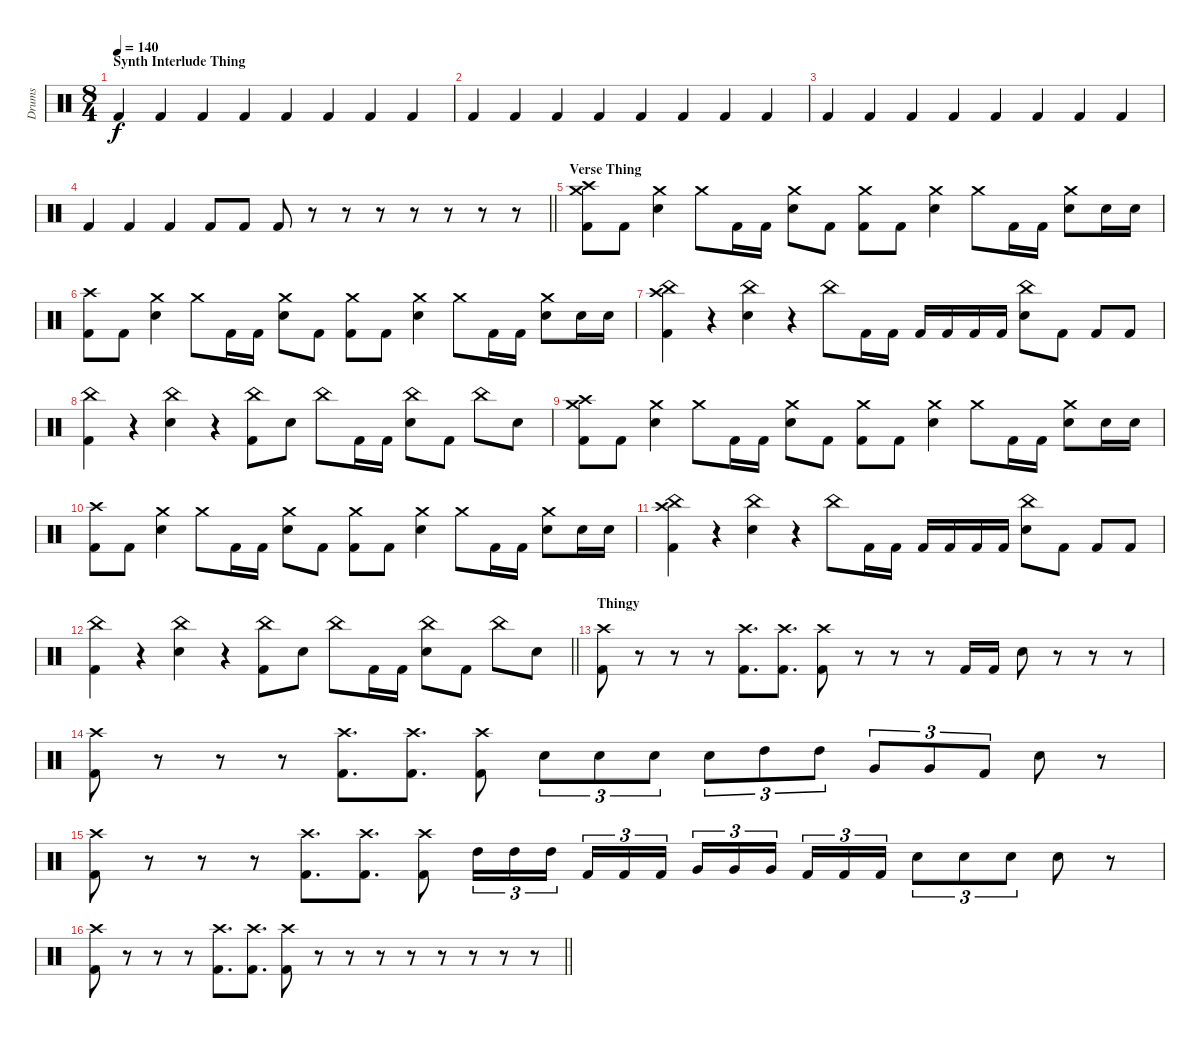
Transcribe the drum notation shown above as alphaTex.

\track ("Drums" "Drums") {instrument percussion}
\staff {score}
\articulation defaults
\ts (8 4)
\section ("" "Synth Interlude Thing")
\tempo 140
\clef neutral
\ks c "Kick (hit) 2".4{dy f} "Kick (hit) 2".4 "Kick (hit) 2".4 "Kick (hit) 2".4 "Kick (hit) 2".4 "Kick (hit) 2".4 "Kick (hit) 2".4 "Kick (hit) 2".4
|
"Kick (hit) 2".4 "Kick (hit) 2".4 "Kick (hit) 2".4 "Kick (hit) 2".4 "Kick (hit) 2".4 "Kick (hit) 2".4 "Kick (hit) 2".4 "Kick (hit) 2".4 |
"Kick (hit) 2".4 "Kick (hit) 2".4 "Kick (hit) 2".4 "Kick (hit) 2".4 "Kick (hit) 2".4 "Kick (hit) 2".4 "Kick (hit) 2".4 "Kick (hit) 2".4 |
\barLineRight lightlight "Kick (hit) 2".4 "Kick (hit) 2".4 "Kick (hit) 2".4 "Kick (hit) 2".8 "Kick (hit) 2".8 "Kick (hit) 2".8
r.8 r.8 r.8 r.8 r.8 r.8 r.8 |
\section ("" "Verse Thing")
("Crash high (hit)" "Crash medium (hit)" "Kick (hit) 2").8 "Kick (hit) 2".8 ("Crash medium (hit)" "Snare (hit) 2").4 "Crash medium (hit)".8 "Kick (hit) 2".16 "Kick (hit) 2".16 ("Crash medium (hit)" "Snare (hit) 2").8 "Kick (hit) 2".8 ("Crash medium (hit)" "Kick (hit) 2").8 "Kick (hit) 2".8 ("Crash medium (hit)" "Snare (hit) 2").4 "Crash medium (hit)".8 "Kick (hit) 2".16 "Kick (hit) 2".16 ("Crash medium (hit)" "Snare (hit) 2").8 "Snare (hit) 2".16 "Snare (hit) 2".16 |
("Crash high (hit)" "Kick (hit) 2").8 "Kick (hit) 2".8 ("Crash medium (hit)" "Snare (hit) 2").4 "Crash medium (hit)".8 "Kick (hit) 2".16 "Kick (hit) 2".16 ("Crash medium (hit)" "Snare (hit) 2").8 "Kick (hit) 2".8 ("Crash medium (hit)" "Kick (hit) 2").8 "Kick (hit) 2".8 ("Crash medium (hit)" "Snare (hit) 2").4 "Crash medium (hit)".8 "Kick (hit) 2".16 "Kick (hit) 2".16 ("Crash medium (hit)" "Snare (hit) 2").8 "Snare (hit) 2".16 "Snare (hit) 2".16 |
("China (hit)" "Crash high (hit)" "Kick (hit) 2").4 r.4 ("China (hit)" "Snare (hit) 2").4 r.4 "China (hit)".8 "Kick (hit) 2".16 "Kick (hit) 2".16 "Kick (hit) 2".16 "Kick (hit) 2".16 "Kick (hit) 2".16 "Kick (hit) 2".16 ("China (hit)" "Snare (hit) 2").8 "Kick (hit) 2".8 "Kick (hit) 2".8 "Kick (hit) 2".8 |
("China (hit)" "Kick (hit) 2").4 r.4 ("China (hit)" "Snare (hit) 2").4 r.4 ("China (hit)" "Kick (hit) 2").8 "Snare (hit) 2".8 "China (hit)".8 "Kick (hit) 2".16 "Kick (hit) 2".16 ("China (hit)" "Snare (hit) 2").8 "Kick (hit) 2".8 "China (hit)".8 "Snare (hit) 2".8 |
("Crash high (hit)" "Crash medium (hit)" "Kick (hit) 2").8 "Kick (hit) 2".8 ("Crash medium (hit)" "Snare (hit) 2").4 "Crash medium (hit)".8 "Kick (hit) 2".16 "Kick (hit) 2".16 ("Crash medium (hit)" "Snare (hit) 2").8 "Kick (hit) 2".8 ("Crash medium (hit)" "Kick (hit) 2").8 "Kick (hit) 2".8 ("Crash medium (hit)" "Snare (hit) 2").4 "Crash medium (hit)".8 "Kick (hit) 2".16 "Kick (hit) 2".16 ("Crash medium (hit)" "Snare (hit) 2").8 "Snare (hit) 2".16 "Snare (hit) 2".16 |
("Crash high (hit)" "Kick (hit) 2").8 "Kick (hit) 2".8 ("Crash medium (hit)" "Snare (hit) 2").4 "Crash medium (hit)".8 "Kick (hit) 2".16 "Kick (hit) 2".16 ("Crash medium (hit)" "Snare (hit) 2").8 "Kick (hit) 2".8 ("Crash medium (hit)" "Kick (hit) 2").8 "Kick (hit) 2".8 ("Crash medium (hit)" "Snare (hit) 2").4 "Crash medium (hit)".8 "Kick (hit) 2".16 "Kick (hit) 2".16 ("Crash medium (hit)" "Snare (hit) 2").8 "Snare (hit) 2".16 "Snare (hit) 2".16 |
("China (hit)" "Crash high (hit)" "Kick (hit) 2").4 r.4 ("China (hit)" "Snare (hit) 2").4 r.4 "China (hit)".8 "Kick (hit) 2".16 "Kick (hit) 2".16 "Kick (hit) 2".16 "Kick (hit) 2".16 "Kick (hit) 2".16 "Kick (hit) 2".16 ("China (hit)" "Snare (hit) 2").8 "Kick (hit) 2".8 "Kick (hit) 2".8 "Kick (hit) 2".8 |
\barLineRight lightlight
("China (hit)" "Kick (hit) 2").4 r.4 ("China (hit)" "Snare (hit) 2").4 r.4 ("China (hit)" "Kick (hit) 2").8 "Snare (hit) 2".8 "China (hit)".8 "Kick (hit) 2".16 "Kick (hit) 2".16 ("China (hit)" "Snare (hit) 2").8 "Kick (hit) 2".8 "China (hit)".8 "Snare (hit) 2".8 |
\section ("" "Thingy")
("Crash high (hit)" "Kick (hit) 2").8 r.8 r.8 r.8 ("Crash high (hit)" "Kick (hit) 2").8{d} ("Crash high (hit)" "Kick (hit) 2").8{d} ("Crash high (hit)" "Kick (hit) 2").8 r.8 r.8 r.8 "Kick (hit) 2".16 "Kick (hit) 2".16 "Snare (hit) 2".8 r.8 r.8 r.8 |
("Crash high (hit)" "Kick (hit) 2").8 r.8 r.8 r.8 ("Crash high (hit)" "Kick (hit) 2").8{d} ("Crash high (hit)" "Kick (hit) 2").8{d} ("Crash high (hit)" "Kick (hit) 2").8 "Snare (hit) 2".8{tu (3 2)} "Snare (hit) 2".8{tu (3 2)} "Snare (hit) 2".8{tu (3 2)} "Snare (hit) 2".8{tu (3 2)} "High Tom (hit)".8{tu (3 2)} "High Tom (hit)".8{tu (3 2)} "Very Low Tom (hit)".8{tu (3 2)} "Very Low Tom (hit)".8{tu (3 2)} "Kick (hit) 2".8{tu (3 2)} "Snare (hit) 2".8 r.8 |
("Crash high (hit)" "Kick (hit) 2").8 r.8 r.8 r.8 ("Crash high (hit)" "Kick (hit) 2").8{d} ("Crash high (hit)" "Kick (hit) 2").8{d} ("Crash high (hit)" "Kick (hit) 2").8 "High Tom (hit)".16{tu (3 2)} "High Tom (hit)".16{tu (3 2)} "High Tom (hit)".16{tu (3 2) beam splitsecondary} "Kick (hit) 2".16{tu (3 2)} "Kick (hit) 2".16{tu (3 2)} "Kick (hit) 2".16{tu (3 2)} "Very Low Tom (hit)".16{tu (3 2)} "Very Low Tom (hit)".16{tu (3 2)} "Very Low Tom (hit)".16{tu (3 2) beam splitsecondary} "Kick (hit) 2".16{tu (3 2)} "Kick (hit) 2".16{tu (3 2)} "Kick (hit) 2".16{tu (3 2)} "Snare (hit) 2".8{tu (3 2)} "Snare (hit) 2".8{tu (3 2)} "Snare (hit) 2".8{tu (3 2)} "Snare (hit) 2".8 r.8 |
\barLineRight lightlight
("Crash high (hit)" "Kick (hit) 2").8 r.8 r.8 r.8 ("Crash high (hit)" "Kick (hit) 2").8{d} ("Crash high (hit)" "Kick (hit) 2").8{d} ("Crash high (hit)" "Kick (hit) 2").8 r.8 r.8 r.8 r.8 r.8 r.8 r.8 r.8
